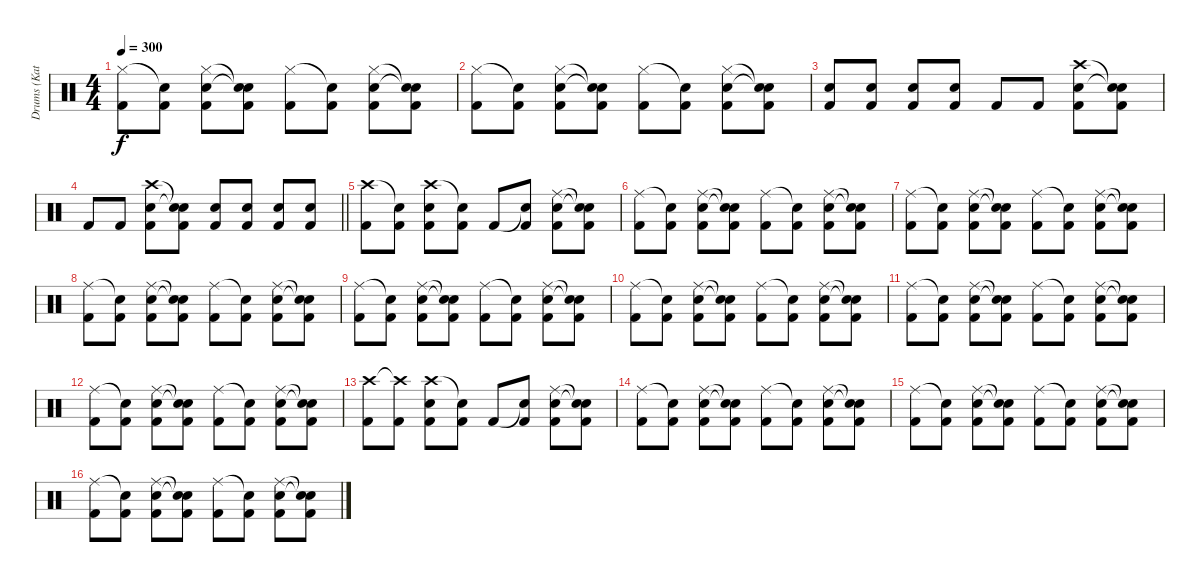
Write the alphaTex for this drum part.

\track ("Drums (Katsuji)" "Drums (Kat") {instrument percussion}
\staff {score}
\articulation defaults
\ts (4 4)
\tempo 300
\clef neutral
\ks c
("Hi-Hat (closed)" "Kick (hit) 2").8{dy f} ("Snare (hit)"{t} "Kick (hit) 2").8 ("Hi-Hat (closed)" "Snare (hit) 2" "Kick (hit) 2").8 ("Snare (hit)"{t} "Snare (hit)"{t} "Kick (hit) 2").8 ("Hi-Hat (closed)" "Kick (hit) 2").8 ("Snare (hit)"{t} "Kick (hit) 2").8 ("Hi-Hat (closed)" "Snare (hit) 2" "Kick (hit) 2").8 ("Snare (hit)"{t} "Snare (hit)"{t} "Kick (hit) 2").8 |
("Hi-Hat (closed)" "Kick (hit) 2").8 ("Snare (hit)"{t} "Kick (hit) 2").8 ("Hi-Hat (closed)" "Snare (hit) 2" "Kick (hit) 2").8 ("Snare (hit)"{t} "Snare (hit)"{t} "Kick (hit) 2").8 ("Hi-Hat (closed)" "Kick (hit) 2").8 ("Snare (hit)"{t} "Kick (hit) 2").8 ("Hi-Hat (closed)" "Snare (hit) 2" "Kick (hit) 2").8 ("Snare (hit)"{t} "Snare (hit)"{t} "Kick (hit) 2").8 |
("Snare (hit) 2" "Kick (hit) 2").8 ("Snare (hit) 2" "Kick (hit) 2").8 ("Snare (hit) 2" "Kick (hit) 2").8 ("Snare (hit) 2" "Kick (hit) 2").8 "Kick (hit) 2".8 "Kick (hit) 2".8 ("Crash high (hit)" "Snare (hit) 2" "Kick (hit) 2").8 ("Snare (hit)"{t} "Snare (hit)"{t} "Kick (hit) 2").8 |
\barLineRight lightlight "Kick (hit) 2".8 "Kick (hit) 2".8
("Crash high (hit)" "Snare (hit) 2" "Kick (hit) 2").8 ("Snare (hit)"{t} "Snare (hit)"{t} "Kick (hit) 2").8 ("Snare (hit) 2" "Kick (hit) 2").8 ("Snare (hit) 2" "Kick (hit) 2").8 ("Snare (hit) 2" "Kick (hit) 2").8 ("Snare (hit) 2" "Kick (hit) 2").8 |
("Crash high (hit)" "Kick (hit) 2").8 ("Snare (hit)"{t} "Kick (hit) 2").8 ("Crash high (hit)" "Snare (hit) 2" "Kick (hit) 2").8 ("Snare (hit)"{t} "Kick (hit) 2").8 "Kick (hit) 2".8 ("Snare (hit)"{t} "Kick (hit) 2").8 ("Ride (middle)" "Snare (hit) 2" "Kick (hit) 2").8 ("Snare (hit)"{t} "Snare (hit)"{t} "Kick (hit) 2").8 |
("Ride (middle)" "Kick (hit) 2").8 ("Snare (hit)"{t} "Kick (hit) 2").8 ("Ride (middle)" "Snare (hit) 2" "Kick (hit) 2").8 ("Snare (hit)"{t} "Snare (hit)"{t} "Kick (hit) 2").8 ("Ride (middle)" "Kick (hit) 2").8 ("Snare (hit)"{t} "Kick (hit) 2").8 ("Ride (middle)" "Snare (hit) 2" "Kick (hit) 2").8 ("Snare (hit)"{t} "Snare (hit)"{t} "Kick (hit) 2").8 |
("Ride (middle)" "Kick (hit) 2").8 ("Snare (hit)"{t} "Kick (hit) 2").8 ("Ride (middle)" "Snare (hit) 2" "Kick (hit) 2").8 ("Snare (hit)"{t} "Snare (hit)"{t} "Kick (hit) 2").8 ("Ride (middle)" "Kick (hit) 2").8 ("Snare (hit)"{t} "Kick (hit) 2").8 ("Ride (middle)" "Snare (hit) 2" "Kick (hit) 2").8 ("Snare (hit)"{t} "Snare (hit)"{t} "Kick (hit) 2").8 |
("Ride (middle)" "Kick (hit) 2").8 ("Snare (hit)"{t} "Kick (hit) 2").8 ("Ride (middle)" "Snare (hit) 2" "Kick (hit) 2").8 ("Snare (hit)"{t} "Snare (hit)"{t} "Kick (hit) 2").8 ("Ride (middle)" "Kick (hit) 2").8 ("Snare (hit)"{t} "Kick (hit) 2").8 ("Ride (middle)" "Snare (hit) 2" "Kick (hit) 2").8 ("Snare (hit)"{t} "Snare (hit)"{t} "Kick (hit) 2").8 |
("Ride (middle)" "Kick (hit) 2").8 ("Snare (hit)"{t} "Kick (hit) 2").8 ("Ride (middle)" "Snare (hit) 2" "Kick (hit) 2").8 ("Snare (hit)"{t} "Snare (hit)"{t} "Kick (hit) 2").8 ("Ride (middle)" "Kick (hit) 2").8 ("Snare (hit)"{t} "Kick (hit) 2").8 ("Ride (middle)" "Snare (hit) 2" "Kick (hit) 2").8 ("Snare (hit)"{t} "Snare (hit)"{t} "Kick (hit) 2").8 |
("Ride (middle)" "Kick (hit) 2").8 ("Snare (hit)"{t} "Kick (hit) 2").8 ("Ride (middle)" "Snare (hit) 2" "Kick (hit) 2").8 ("Snare (hit)"{t} "Snare (hit)"{t} "Kick (hit) 2").8 ("Ride (middle)" "Kick (hit) 2").8 ("Snare (hit)"{t} "Kick (hit) 2").8 ("Ride (middle)" "Snare (hit) 2" "Kick (hit) 2").8 ("Snare (hit)"{t} "Snare (hit)"{t} "Kick (hit) 2").8 |
("Ride (middle)" "Kick (hit) 2").8 ("Snare (hit)"{t} "Kick (hit) 2").8 ("Ride (middle)" "Snare (hit) 2" "Kick (hit) 2").8 ("Snare (hit)"{t} "Snare (hit)"{t} "Kick (hit) 2").8 ("Ride (middle)" "Kick (hit) 2").8 ("Snare (hit)"{t} "Kick (hit) 2").8 ("Ride (middle)" "Snare (hit) 2" "Kick (hit) 2").8 ("Snare (hit)"{t} "Snare (hit)"{t} "Kick (hit) 2").8 |
("Ride (middle)" "Kick (hit) 2").8 ("Snare (hit)"{t} "Kick (hit) 2").8 ("Ride (middle)" "Snare (hit) 2" "Kick (hit) 2").8 ("Snare (hit)"{t} "Snare (hit)"{t} "Kick (hit) 2").8 ("Ride (middle)" "Kick (hit) 2").8 ("Snare (hit)"{t} "Kick (hit) 2").8 ("Ride (middle)" "Snare (hit) 2" "Kick (hit) 2").8 ("Snare (hit)"{t} "Snare (hit)"{t} "Kick (hit) 2").8 |
("Crash high (hit)" "Kick (hit) 2").8 ("Crash high (hit)"{t} "Kick (hit) 2").8 ("Crash high (hit)" "Snare (hit) 2" "Kick (hit) 2").8 ("Snare (hit)"{t} "Kick (hit) 2").8 "Kick (hit) 2".8 ("Snare (hit)"{t} "Kick (hit) 2").8 ("Ride (middle)" "Snare (hit) 2" "Kick (hit) 2").8 ("Snare (hit)"{t} "Snare (hit)"{t} "Kick (hit) 2").8 |
("Ride (middle)" "Kick (hit) 2").8 ("Snare (hit)"{t} "Kick (hit) 2").8 ("Ride (middle)" "Snare (hit) 2" "Kick (hit) 2").8 ("Snare (hit)"{t} "Snare (hit)"{t} "Kick (hit) 2").8 ("Ride (middle)" "Kick (hit) 2").8 ("Snare (hit)"{t} "Kick (hit) 2").8 ("Ride (middle)" "Snare (hit) 2" "Kick (hit) 2").8 ("Snare (hit)"{t} "Snare (hit)"{t} "Kick (hit) 2").8 |
("Ride (middle)" "Kick (hit) 2").8 ("Snare (hit)"{t} "Kick (hit) 2").8 ("Ride (middle)" "Snare (hit) 2" "Kick (hit) 2").8 ("Snare (hit)"{t} "Snare (hit)"{t} "Kick (hit) 2").8 ("Ride (middle)" "Kick (hit) 2").8 ("Snare (hit)"{t} "Kick (hit) 2").8 ("Ride (middle)" "Snare (hit) 2" "Kick (hit) 2").8 ("Snare (hit)"{t} "Snare (hit)"{t} "Kick (hit) 2").8 |
("Ride (middle)" "Kick (hit) 2").8 ("Snare (hit)"{t} "Kick (hit) 2").8 ("Ride (middle)" "Snare (hit) 2" "Kick (hit) 2").8 ("Snare (hit)"{t} "Snare (hit)"{t} "Kick (hit) 2").8 ("Ride (middle)" "Kick (hit) 2").8 ("Snare (hit)"{t} "Kick (hit) 2").8 ("Ride (middle)" "Snare (hit) 2" "Kick (hit) 2").8 ("Snare (hit)"{t} "Snare (hit)"{t} "Kick (hit) 2").8
